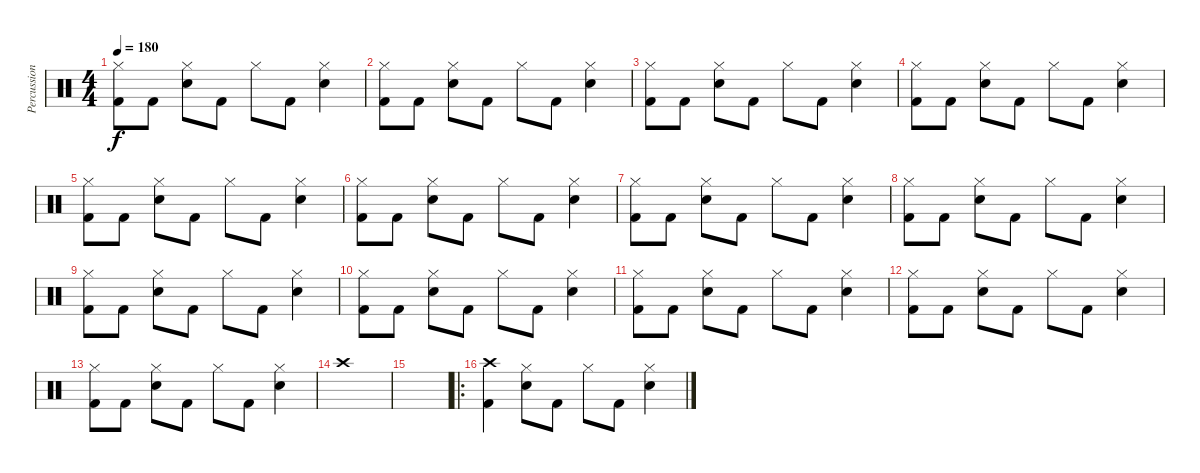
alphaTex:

\track ("Percussions" "Percussion") {instrument percussion}
\staff {score}
\articulation defaults
\ts (4 4)
\tempo 180
\clef neutral
\ks c
("Hi-Hat (closed)" "Kick (hit) 2").8{dy f} "Kick (hit) 2".8 ("Hi-Hat (closed)" "Snare (hit) 2").8 "Kick (hit) 2".8 "Hi-Hat (closed)".8 "Kick (hit) 2".8 ("Hi-Hat (closed)" "Snare (hit) 2").4 |
("Hi-Hat (closed)" "Kick (hit) 2").8 "Kick (hit) 2".8 ("Hi-Hat (closed)" "Snare (hit) 2").8 "Kick (hit) 2".8 "Hi-Hat (closed)".8 "Kick (hit) 2".8 ("Hi-Hat (closed)" "Snare (hit) 2").4 |
("Hi-Hat (closed)" "Kick (hit) 2").8 "Kick (hit) 2".8 ("Hi-Hat (closed)" "Snare (hit) 2").8 "Kick (hit) 2".8 "Hi-Hat (closed)".8 "Kick (hit) 2".8 ("Hi-Hat (closed)" "Snare (hit) 2").4 |
("Hi-Hat (closed)" "Kick (hit) 2").8 "Kick (hit) 2".8 ("Hi-Hat (closed)" "Snare (hit) 2").8 "Kick (hit) 2".8 "Hi-Hat (closed)".8 "Kick (hit) 2".8 ("Hi-Hat (closed)" "Snare (hit) 2").4 |
("Hi-Hat (closed)" "Kick (hit) 2").8 "Kick (hit) 2".8 ("Hi-Hat (closed)" "Snare (hit) 2").8 "Kick (hit) 2".8 "Hi-Hat (closed)".8 "Kick (hit) 2".8 ("Hi-Hat (closed)" "Snare (hit) 2").4 |
("Hi-Hat (closed)" "Kick (hit) 2").8 "Kick (hit) 2".8 ("Hi-Hat (closed)" "Snare (hit) 2").8 "Kick (hit) 2".8 "Hi-Hat (closed)".8 "Kick (hit) 2".8 ("Hi-Hat (closed)" "Snare (hit) 2").4 |
("Hi-Hat (closed)" "Kick (hit) 2").8 "Kick (hit) 2".8 ("Hi-Hat (closed)" "Snare (hit) 2").8 "Kick (hit) 2".8 "Hi-Hat (closed)".8 "Kick (hit) 2".8 ("Hi-Hat (closed)" "Snare (hit) 2").4 |
("Hi-Hat (closed)" "Kick (hit) 2").8 "Kick (hit) 2".8 ("Hi-Hat (closed)" "Snare (hit) 2").8 "Kick (hit) 2".8 "Hi-Hat (closed)".8 "Kick (hit) 2".8 ("Hi-Hat (closed)" "Snare (hit) 2").4 |
("Hi-Hat (closed)" "Kick (hit) 2").8 "Kick (hit) 2".8 ("Hi-Hat (closed)" "Snare (hit) 2").8 "Kick (hit) 2".8 "Hi-Hat (closed)".8 "Kick (hit) 2".8 ("Hi-Hat (closed)" "Snare (hit) 2").4 |
("Hi-Hat (closed)" "Kick (hit) 2").8 "Kick (hit) 2".8 ("Hi-Hat (closed)" "Snare (hit) 2").8 "Kick (hit) 2".8 "Hi-Hat (closed)".8 "Kick (hit) 2".8 ("Hi-Hat (closed)" "Snare (hit) 2").4 |
("Hi-Hat (closed)" "Kick (hit) 2").8 "Kick (hit) 2".8 ("Hi-Hat (closed)" "Snare (hit) 2").8 "Kick (hit) 2".8 "Hi-Hat (closed)".8 "Kick (hit) 2".8 ("Hi-Hat (closed)" "Snare (hit) 2").4 |
("Hi-Hat (closed)" "Kick (hit) 2").8 "Kick (hit) 2".8 ("Hi-Hat (closed)" "Snare (hit) 2").8 "Kick (hit) 2".8 "Hi-Hat (closed)".8 "Kick (hit) 2".8 ("Hi-Hat (closed)" "Snare (hit) 2").4 |
("Hi-Hat (closed)" "Kick (hit) 2").8 "Kick (hit) 2".8 ("Hi-Hat (closed)" "Snare (hit) 2").8 "Kick (hit) 2".8 "Hi-Hat (closed)".8 "Kick (hit) 2".8 ("Hi-Hat (closed)" "Snare (hit) 2").4 |
"Crash high (hit)".1 |
|
\ro
("Crash high (hit)" "Kick (hit) 2").4 ("Hi-Hat (closed)" "Snare (hit) 2").8 "Kick (hit) 2".8 "Hi-Hat (closed)".8 "Kick (hit) 2".8 ("Hi-Hat (closed)" "Snare (hit) 2").4
